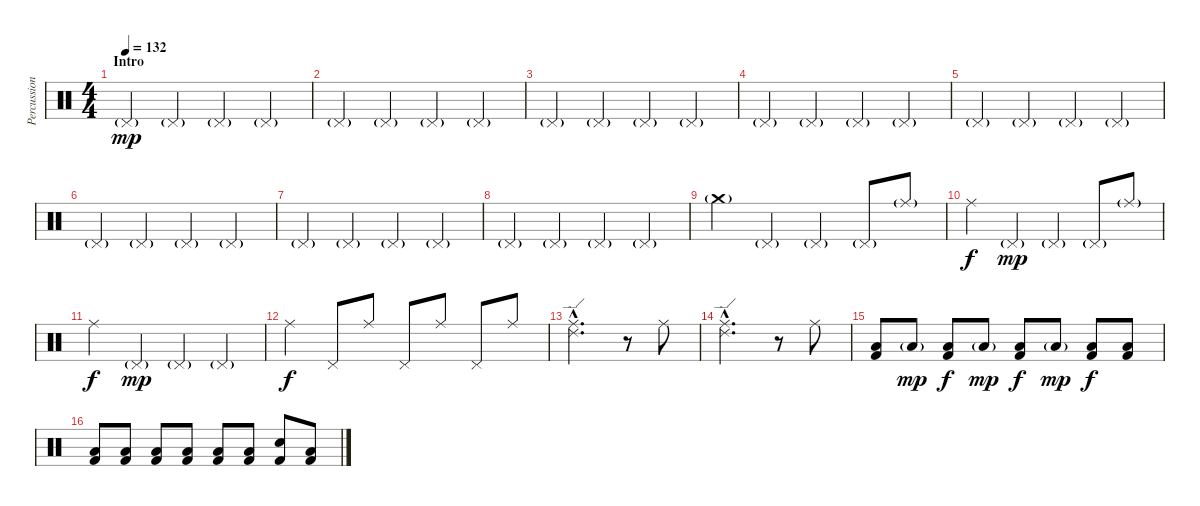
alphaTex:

\track ("Percussion" "Percussion") {instrument percussion}
\staff {score}
\articulation defaults
\ts (4 4)
\section ("" "Intro")
\tempo 132
\clef neutral
\ks c "Pedal Hi-Hat (hit)"{g}.4{dy mp} "Pedal Hi-Hat (hit)"{g}.4 "Pedal Hi-Hat (hit)"{g}.4 "Pedal Hi-Hat (hit)"{g}.4
|
"Pedal Hi-Hat (hit)"{g}.4 "Pedal Hi-Hat (hit)"{g}.4 "Pedal Hi-Hat (hit)"{g}.4 "Pedal Hi-Hat (hit)"{g}.4 |
"Pedal Hi-Hat (hit)"{g}.4 "Pedal Hi-Hat (hit)"{g}.4 "Pedal Hi-Hat (hit)"{g}.4 "Pedal Hi-Hat (hit)"{g}.4 |
"Pedal Hi-Hat (hit)"{g}.4 "Pedal Hi-Hat (hit)"{g}.4 "Pedal Hi-Hat (hit)"{g}.4 "Pedal Hi-Hat (hit)"{g}.4 |
"Pedal Hi-Hat (hit)"{g}.4 "Pedal Hi-Hat (hit)"{g}.4 "Pedal Hi-Hat (hit)"{g}.4 "Pedal Hi-Hat (hit)"{g}.4 |
"Pedal Hi-Hat (hit)"{g}.4 "Pedal Hi-Hat (hit)"{g}.4 "Pedal Hi-Hat (hit)"{g}.4 "Pedal Hi-Hat (hit)"{g}.4 |
"Pedal Hi-Hat (hit)"{g}.4 "Pedal Hi-Hat (hit)"{g}.4 "Pedal Hi-Hat (hit)"{g}.4 "Pedal Hi-Hat (hit)"{g}.4 |
"Pedal Hi-Hat (hit)"{g}.4 "Pedal Hi-Hat (hit)"{g}.4 "Pedal Hi-Hat (hit)"{g}.4 "Pedal Hi-Hat (hit)"{g}.4 |
"Crash medium (hit)"{g}.4 "Pedal Hi-Hat (hit)"{g}.4 "Pedal Hi-Hat (hit)"{g}.4 "Pedal Hi-Hat (hit)"{g}.8 "Ride (middle)"{g}.8 |
"Ride (middle)".4{dy f} "Pedal Hi-Hat (hit)"{g}.4{dy mp} "Pedal Hi-Hat (hit)"{g}.4 "Pedal Hi-Hat (hit)"{g}.8 "Ride (middle)"{g}.8 |
"Ride (middle)".4{dy f} "Pedal Hi-Hat (hit)"{g}.4{dy mp} "Pedal Hi-Hat (hit)"{g}.4 "Pedal Hi-Hat (hit)"{g}.4 |
"Ride (middle)".4{dy f} "Pedal Hi-Hat (hit)".8 "Ride (middle)".8 "Pedal Hi-Hat (hit)".8 "Ride (middle)".8 "Pedal Hi-Hat (hit)".8 "Ride (middle)".8 |
("Ride (edge) 2"{hac} "Ride (middle)"{hac}).2{d} r.8 "Ride (middle)".8 |
("Ride (middle)"{hac} "Ride (edge) 2"{hac}).2{d} r.8 "Ride (middle)".8 |
("Kick (hit) 2" "Low Tom (hit)").8 "Low Tom (hit)"{g}.8{dy mp} ("Kick (hit) 2" "Low Tom (hit)").8{dy f} "Low Tom (hit)"{g}.8{dy mp} ("Kick (hit) 2" "Low Tom (hit)").8{dy f} "Low Tom (hit)"{g}.8{dy mp} ("Kick (hit) 2" "Low Tom (hit)").8{dy f} ("Kick (hit) 2" "Low Tom (hit)").8 |
("Kick (hit) 2" "Low Tom (hit)").8 ("Kick (hit) 2" "Low Tom (hit)").8 ("Kick (hit) 2" "Low Tom (hit)").8 ("Kick (hit) 2" "Low Tom (hit)").8 ("Kick (hit) 2" "Low Tom (hit)").8 ("Kick (hit) 2" "Low Tom (hit)").8 ("Kick (hit) 2" "Snare (hit) 2").8 ("Kick (hit) 2" "Low Tom (hit)").8
